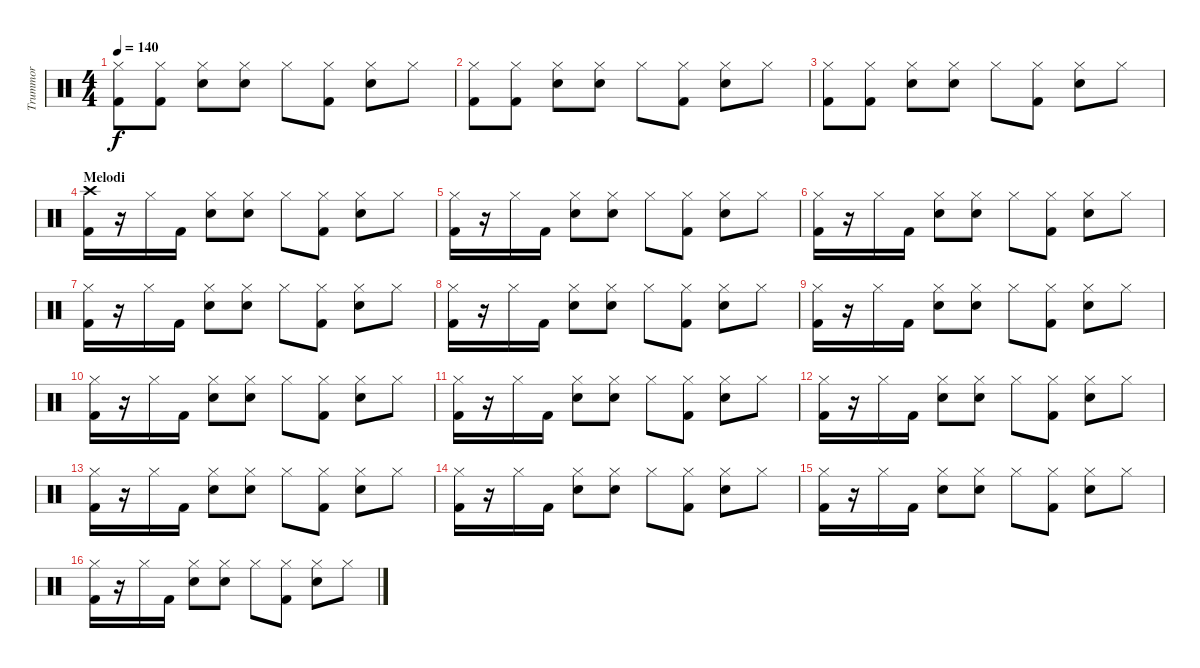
\track ("Trummor" "Trummor") {instrument percussion}
\staff {score}
\articulation defaults
\ts (4 4)
\tempo 140
\clef neutral
\ks c
("Hi-Hat (closed)" "Kick (hit) 2").8{dy f} ("Hi-Hat (closed)" "Kick (hit) 2").8 ("Hi-Hat (closed)" "Electric Snare (hit)").8 ("Hi-Hat (closed)" "Electric Snare (hit)").8 "Hi-Hat (closed)".8 ("Hi-Hat (closed)" "Kick (hit) 2").8 ("Hi-Hat (closed)" "Electric Snare (hit)").8 "Hi-Hat (closed)".8 |
("Hi-Hat (closed)" "Kick (hit) 2").8 ("Hi-Hat (closed)" "Kick (hit) 2").8 ("Hi-Hat (closed)" "Electric Snare (hit)").8 ("Hi-Hat (closed)" "Electric Snare (hit)").8 "Hi-Hat (closed)".8 ("Hi-Hat (closed)" "Kick (hit) 2").8 ("Hi-Hat (closed)" "Electric Snare (hit)").8 "Hi-Hat (closed)".8 |
("Hi-Hat (closed)" "Kick (hit) 2").8 ("Hi-Hat (closed)" "Kick (hit) 2").8 ("Hi-Hat (closed)" "Electric Snare (hit)").8 ("Hi-Hat (closed)" "Electric Snare (hit)").8 "Hi-Hat (closed)".8 ("Hi-Hat (closed)" "Kick (hit) 2").8 ("Hi-Hat (closed)" "Electric Snare (hit)").8 "Hi-Hat (closed)".8 |
\section ("" "Melodi")
("Crash high (hit)" "Kick (hit) 2").16 r.16 "Hi-Hat (closed)".16 "Kick (hit) 2".16 ("Hi-Hat (closed)" "Electric Snare (hit)").8 ("Hi-Hat (closed)" "Electric Snare (hit)").8 "Hi-Hat (closed)".8 ("Hi-Hat (closed)" "Kick (hit) 2").8 ("Hi-Hat (closed)" "Electric Snare (hit)").8 "Hi-Hat (closed)".8 |
("Hi-Hat (closed)" "Kick (hit) 2").16 r.16 "Hi-Hat (closed)".16 "Kick (hit) 2".16 ("Hi-Hat (closed)" "Electric Snare (hit)").8 ("Hi-Hat (closed)" "Electric Snare (hit)").8 "Hi-Hat (closed)".8 ("Hi-Hat (closed)" "Kick (hit) 2").8 ("Hi-Hat (closed)" "Electric Snare (hit)").8 "Hi-Hat (closed)".8 |
("Hi-Hat (closed)" "Kick (hit) 2").16 r.16 "Hi-Hat (closed)".16 "Kick (hit) 2".16 ("Hi-Hat (closed)" "Electric Snare (hit)").8 ("Hi-Hat (closed)" "Electric Snare (hit)").8 "Hi-Hat (closed)".8 ("Hi-Hat (closed)" "Kick (hit) 2").8 ("Hi-Hat (closed)" "Electric Snare (hit)").8 "Hi-Hat (closed)".8 |
("Hi-Hat (closed)" "Kick (hit) 2").16 r.16 "Hi-Hat (closed)".16 "Kick (hit) 2".16 ("Hi-Hat (closed)" "Electric Snare (hit)").8 ("Hi-Hat (closed)" "Electric Snare (hit)").8 "Hi-Hat (closed)".8 ("Hi-Hat (closed)" "Kick (hit) 2").8 ("Hi-Hat (closed)" "Electric Snare (hit)").8 "Hi-Hat (closed)".8 |
("Hi-Hat (closed)" "Kick (hit) 2").16 r.16 "Hi-Hat (closed)".16 "Kick (hit) 2".16 ("Hi-Hat (closed)" "Electric Snare (hit)").8 ("Hi-Hat (closed)" "Electric Snare (hit)").8 "Hi-Hat (closed)".8 ("Hi-Hat (closed)" "Kick (hit) 2").8 ("Hi-Hat (closed)" "Electric Snare (hit)").8 "Hi-Hat (closed)".8 |
("Hi-Hat (closed)" "Kick (hit) 2").16 r.16 "Hi-Hat (closed)".16 "Kick (hit) 2".16 ("Hi-Hat (closed)" "Electric Snare (hit)").8 ("Hi-Hat (closed)" "Electric Snare (hit)").8 "Hi-Hat (closed)".8 ("Hi-Hat (closed)" "Kick (hit) 2").8 ("Hi-Hat (closed)" "Electric Snare (hit)").8 "Hi-Hat (closed)".8 |
("Hi-Hat (closed)" "Kick (hit) 2").16 r.16 "Hi-Hat (closed)".16 "Kick (hit) 2".16 ("Hi-Hat (closed)" "Electric Snare (hit)").8 ("Hi-Hat (closed)" "Electric Snare (hit)").8 "Hi-Hat (closed)".8 ("Hi-Hat (closed)" "Kick (hit) 2").8 ("Hi-Hat (closed)" "Electric Snare (hit)").8 "Hi-Hat (closed)".8 |
("Hi-Hat (closed)" "Kick (hit) 2").16 r.16 "Hi-Hat (closed)".16 "Kick (hit) 2".16 ("Hi-Hat (closed)" "Electric Snare (hit)").8 ("Hi-Hat (closed)" "Electric Snare (hit)").8 "Hi-Hat (closed)".8 ("Hi-Hat (closed)" "Kick (hit) 2").8 ("Hi-Hat (closed)" "Electric Snare (hit)").8 "Hi-Hat (closed)".8 |
("Hi-Hat (closed)" "Kick (hit) 2").16 r.16 "Hi-Hat (closed)".16 "Kick (hit) 2".16 ("Hi-Hat (closed)" "Electric Snare (hit)").8 ("Hi-Hat (closed)" "Electric Snare (hit)").8 "Hi-Hat (closed)".8 ("Hi-Hat (closed)" "Kick (hit) 2").8 ("Hi-Hat (closed)" "Electric Snare (hit)").8 "Hi-Hat (closed)".8 |
("Hi-Hat (closed)" "Kick (hit) 2").16 r.16 "Hi-Hat (closed)".16 "Kick (hit) 2".16 ("Hi-Hat (closed)" "Electric Snare (hit)").8 ("Hi-Hat (closed)" "Electric Snare (hit)").8 "Hi-Hat (closed)".8 ("Hi-Hat (closed)" "Kick (hit) 2").8 ("Hi-Hat (closed)" "Electric Snare (hit)").8 "Hi-Hat (closed)".8 |
("Hi-Hat (closed)" "Kick (hit) 2").16 r.16 "Hi-Hat (closed)".16 "Kick (hit) 2".16 ("Hi-Hat (closed)" "Electric Snare (hit)").8 ("Hi-Hat (closed)" "Electric Snare (hit)").8 "Hi-Hat (closed)".8 ("Hi-Hat (closed)" "Kick (hit) 2").8 ("Hi-Hat (closed)" "Electric Snare (hit)").8 "Hi-Hat (closed)".8 |
("Hi-Hat (closed)" "Kick (hit) 2").16 r.16 "Hi-Hat (closed)".16 "Kick (hit) 2".16 ("Hi-Hat (closed)" "Electric Snare (hit)").8 ("Hi-Hat (closed)" "Electric Snare (hit)").8 "Hi-Hat (closed)".8 ("Hi-Hat (closed)" "Kick (hit) 2").8 ("Hi-Hat (closed)" "Electric Snare (hit)").8 "Hi-Hat (closed)".8 |
("Hi-Hat (closed)" "Kick (hit) 2").16 r.16 "Hi-Hat (closed)".16 "Kick (hit) 2".16 ("Hi-Hat (closed)" "Electric Snare (hit)").8 ("Hi-Hat (closed)" "Electric Snare (hit)").8 "Hi-Hat (closed)".8 ("Hi-Hat (closed)" "Kick (hit) 2").8 ("Hi-Hat (closed)" "Electric Snare (hit)").8 "Hi-Hat (closed)".8
